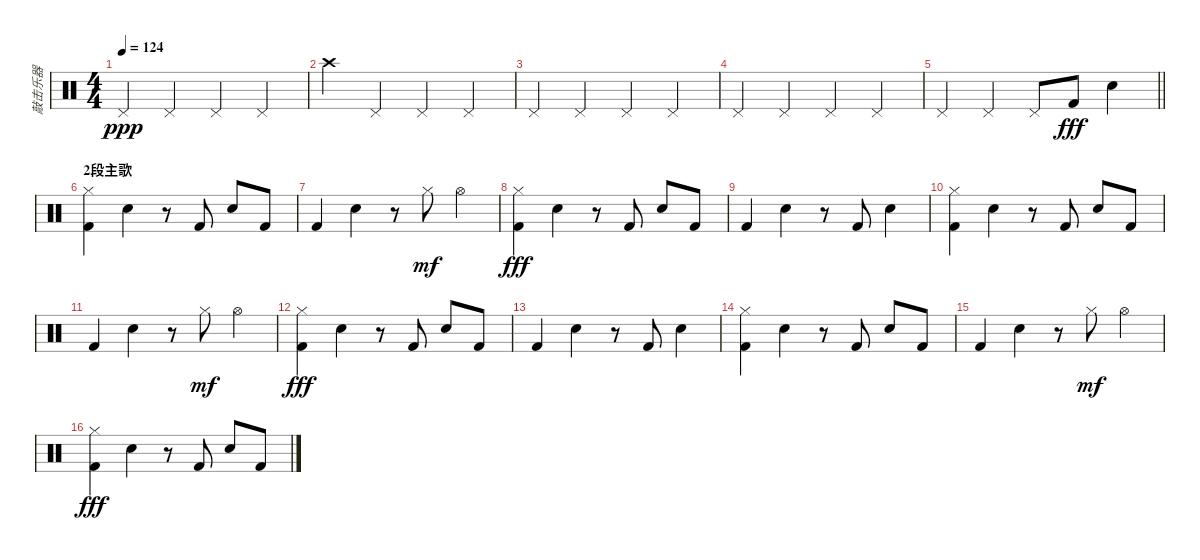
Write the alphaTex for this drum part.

\track ("敲击乐器" "敲击乐器") {instrument percussion}
\staff {score}
\articulation defaults
\ts (4 4)
\tempo 124
\clef neutral
\ks c "Pedal Hi-Hat (hit)".4{dy ppp} "Pedal Hi-Hat (hit)".4 "Pedal Hi-Hat (hit)".4 "Pedal Hi-Hat (hit)".4
|
"Crash high (hit)".4 "Pedal Hi-Hat (hit)".4 "Pedal Hi-Hat (hit)".4 "Pedal Hi-Hat (hit)".4 |
"Pedal Hi-Hat (hit)".4 "Pedal Hi-Hat (hit)".4 "Pedal Hi-Hat (hit)".4 "Pedal Hi-Hat (hit)".4 |
"Pedal Hi-Hat (hit)".4 "Pedal Hi-Hat (hit)".4 "Pedal Hi-Hat (hit)".4 "Pedal Hi-Hat (hit)".4 |
\barLineRight lightlight "Pedal Hi-Hat (hit)".4 "Pedal Hi-Hat (hit)".4 "Pedal Hi-Hat (hit)".8 "Kick (hit) 2".8{dy fff} "Snare (hit) 2".4
|
\section ("" "2段主歌")
("Hi-Hat (closed)" "Kick (hit) 2").4 "Snare (hit) 2".4 r.8 "Kick (hit) 2".8 "Snare (hit) 2".8 "Kick (hit) 2".8 |
"Kick (hit) 2".4 "Snare (hit) 2".4 r.8 "Hi-Hat (closed)".8{dy mf} "Hi-Hat (open)".4 |
("Hi-Hat (closed)" "Kick (hit) 2").4{dy fff} "Snare (hit) 2".4 r.8 "Kick (hit) 2".8 "Snare (hit) 2".8 "Kick (hit) 2".8 |
"Kick (hit) 2".4 "Snare (hit) 2".4 r.8 "Kick (hit) 2".8 "Snare (hit) 2".4 |
("Hi-Hat (closed)" "Kick (hit) 2").4 "Snare (hit) 2".4 r.8 "Kick (hit) 2".8 "Snare (hit) 2".8 "Kick (hit) 2".8 |
"Kick (hit) 2".4 "Snare (hit) 2".4 r.8 "Hi-Hat (closed)".8{dy mf} "Hi-Hat (open)".4 |
("Hi-Hat (closed)" "Kick (hit) 2").4{dy fff} "Snare (hit) 2".4 r.8 "Kick (hit) 2".8 "Snare (hit) 2".8 "Kick (hit) 2".8 |
"Kick (hit) 2".4 "Snare (hit) 2".4 r.8 "Kick (hit) 2".8 "Snare (hit) 2".4 |
("Hi-Hat (closed)" "Kick (hit) 2").4 "Snare (hit) 2".4 r.8 "Kick (hit) 2".8 "Snare (hit) 2".8 "Kick (hit) 2".8 |
"Kick (hit) 2".4 "Snare (hit) 2".4 r.8 "Hi-Hat (closed)".8{dy mf} "Hi-Hat (open)".4 |
("Hi-Hat (closed)" "Kick (hit) 2").4{dy fff} "Snare (hit) 2".4 r.8 "Kick (hit) 2".8 "Snare (hit) 2".8 "Kick (hit) 2".8
